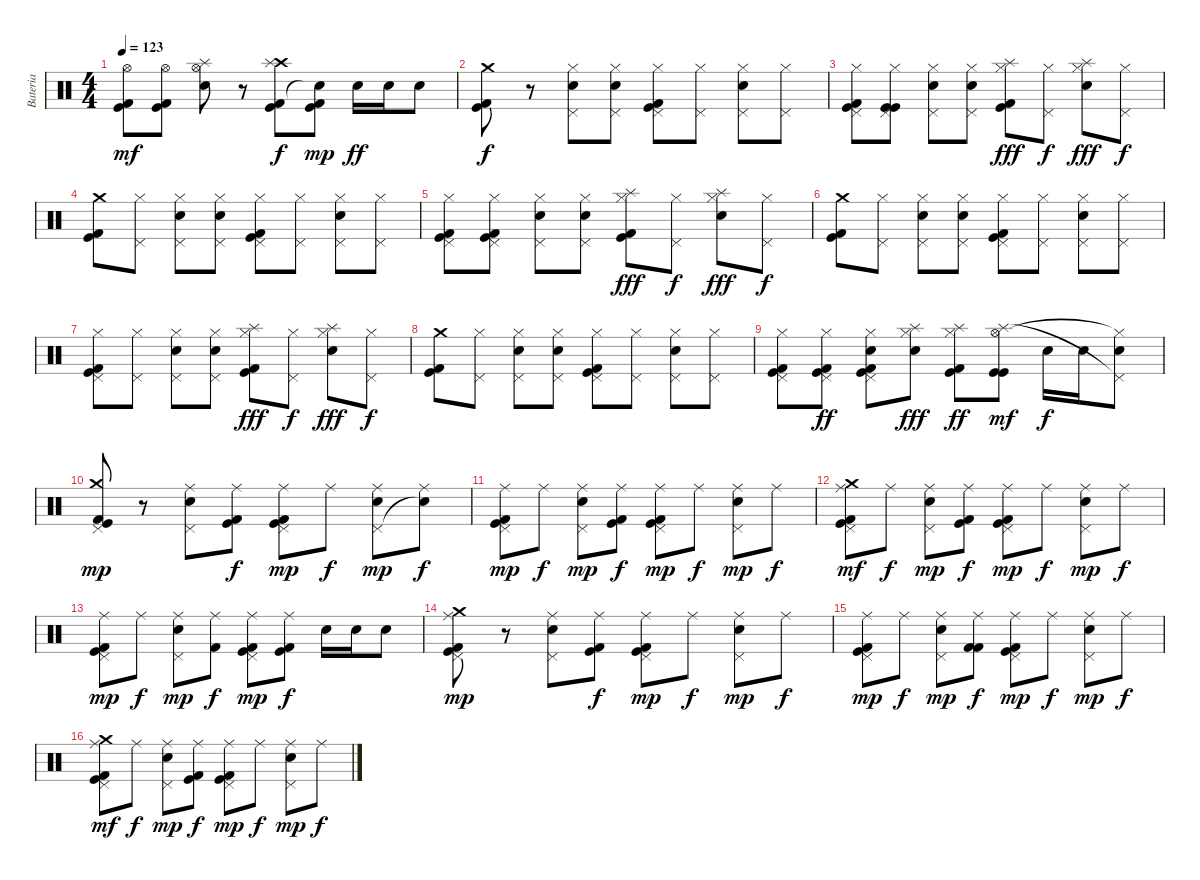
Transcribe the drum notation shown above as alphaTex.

\track ("Bateria" "Bateria") {instrument percussion}
\staff {score}
\articulation defaults
\ts (4 4)
\tempo 123
\clef neutral
\ks c
("Hi-Hat (open)" "Kick (hit) 2" "Kick (hit)").8{dy mf} ("Hi-Hat (open)" "Kick (hit) 2" "Kick (hit)").8 ("Hi-Hat (open)" "Splash (hit)" "Snare (hit) 2").8 r.8 ("Crash high (hit)" "Kick (hit) 2" "Splash (hit)" "Kick (hit)").8{dy f} ("Kick (hit) 2" "Snare (hit)"{t} "Kick (hit)").8{dy mp} "Snare (hit) 2".16{dy ff} "Snare (hit) 2".16 "Snare (hit) 2".8 |
("Kick (hit) 2" "Crash medium (hit)" "Kick (hit)").8{dy f} r.8 ("Snare (hit) 2" "Pedal Hi-Hat (hit)" "Hi-Hat (closed)").8 ("Snare (hit) 2" "Pedal Hi-Hat (hit)" "Hi-Hat (closed)").8 ("Kick (hit) 2" "Pedal Hi-Hat (hit)" "Hi-Hat (closed)" "Kick (hit)").8 ("Pedal Hi-Hat (hit)" "Hi-Hat (closed)").8 ("Snare (hit) 2" "Pedal Hi-Hat (hit)" "Hi-Hat (closed)").8 ("Pedal Hi-Hat (hit)" "Hi-Hat (closed)").8 |
("Kick (hit) 2" "Pedal Hi-Hat (hit)" "Hi-Hat (closed)" "Kick (hit)").8 ("Kick (hit)" "Pedal Hi-Hat (hit)" "Hi-Hat (closed)" "Kick (hit)").8 ("Snare (hit) 2" "Pedal Hi-Hat (hit)" "Hi-Hat (closed)").8 ("Snare (hit) 2" "Pedal Hi-Hat (hit)" "Hi-Hat (closed)").8 ("Kick (hit) 2" "Splash (hit)" "Hi-Hat (closed)" "Kick (hit)").8{dy fff} ("Pedal Hi-Hat (hit)" "Hi-Hat (closed)").8{dy f} ("Snare (hit) 2" "Splash (hit)" "Hi-Hat (closed)").8{dy fff} ("Pedal Hi-Hat (hit)" "Hi-Hat (closed)").8{dy f} |
("Kick (hit) 2" "Crash medium (hit)" "Kick (hit)").8 ("Pedal Hi-Hat (hit)" "Hi-Hat (closed)").8 ("Snare (hit) 2" "Pedal Hi-Hat (hit)" "Hi-Hat (closed)").8 ("Snare (hit) 2" "Pedal Hi-Hat (hit)" "Hi-Hat (closed)").8 ("Kick (hit) 2" "Pedal Hi-Hat (hit)" "Hi-Hat (closed)" "Kick (hit)").8 ("Pedal Hi-Hat (hit)" "Hi-Hat (closed)").8 ("Snare (hit) 2" "Pedal Hi-Hat (hit)" "Hi-Hat (closed)").8 ("Pedal Hi-Hat (hit)" "Hi-Hat (closed)").8 |
("Kick (hit) 2" "Pedal Hi-Hat (hit)" "Hi-Hat (closed)" "Kick (hit)").8 ("Kick (hit) 2" "Pedal Hi-Hat (hit)" "Hi-Hat (closed)" "Kick (hit)").8 ("Snare (hit) 2" "Pedal Hi-Hat (hit)" "Hi-Hat (closed)").8 ("Snare (hit) 2" "Pedal Hi-Hat (hit)" "Hi-Hat (closed)").8 ("Kick (hit) 2" "Splash (hit)" "Hi-Hat (closed)" "Kick (hit)").8{dy fff} ("Pedal Hi-Hat (hit)" "Hi-Hat (closed)").8{dy f} ("Snare (hit) 2" "Splash (hit)" "Hi-Hat (closed)").8{dy fff} ("Pedal Hi-Hat (hit)" "Hi-Hat (closed)").8{dy f} |
("Kick (hit) 2" "Crash medium (hit)" "Kick (hit)").8 ("Pedal Hi-Hat (hit)" "Hi-Hat (closed)").8 ("Snare (hit) 2" "Pedal Hi-Hat (hit)" "Hi-Hat (closed)").8 ("Snare (hit) 2" "Pedal Hi-Hat (hit)" "Hi-Hat (closed)").8 ("Kick (hit) 2" "Pedal Hi-Hat (hit)" "Hi-Hat (closed)" "Kick (hit)").8 ("Pedal Hi-Hat (hit)" "Hi-Hat (closed)").8 ("Snare (hit) 2" "Pedal Hi-Hat (hit)" "Hi-Hat (closed)").8 ("Pedal Hi-Hat (hit)" "Hi-Hat (closed)").8 |
("Kick (hit) 2" "Pedal Hi-Hat (hit)" "Hi-Hat (closed)" "Kick (hit)").8 ("Pedal Hi-Hat (hit)" "Hi-Hat (closed)").8 ("Snare (hit) 2" "Pedal Hi-Hat (hit)" "Hi-Hat (closed)").8 ("Snare (hit) 2" "Pedal Hi-Hat (hit)" "Hi-Hat (closed)").8 ("Kick (hit) 2" "Splash (hit)" "Hi-Hat (closed)" "Kick (hit)").8{dy fff} ("Pedal Hi-Hat (hit)" "Hi-Hat (closed)").8{dy f} ("Snare (hit) 2" "Splash (hit)" "Hi-Hat (closed)").8{dy fff} ("Pedal Hi-Hat (hit)" "Hi-Hat (closed)").8{dy f} |
("Kick (hit) 2" "Crash medium (hit)" "Kick (hit)").8 ("Pedal Hi-Hat (hit)" "Hi-Hat (closed)").8 ("Snare (hit) 2" "Pedal Hi-Hat (hit)" "Hi-Hat (closed)").8 ("Snare (hit) 2" "Pedal Hi-Hat (hit)" "Hi-Hat (closed)").8 ("Kick (hit) 2" "Pedal Hi-Hat (hit)" "Hi-Hat (closed)" "Kick (hit)").8 ("Pedal Hi-Hat (hit)" "Hi-Hat (closed)").8 ("Snare (hit) 2" "Pedal Hi-Hat (hit)" "Hi-Hat (closed)").8 ("Pedal Hi-Hat (hit)" "Hi-Hat (closed)").8 |
("Kick (hit) 2" "Pedal Hi-Hat (hit)" "Hi-Hat (closed)" "Kick (hit)").8 ("Kick (hit) 2" "Pedal Hi-Hat (hit)" "Hi-Hat (closed)" "Kick (hit)").8{dy ff} ("Snare (hit) 2" "Kick (hit) 2" "Pedal Hi-Hat (hit)" "Hi-Hat (closed)" "Kick (hit)").8 ("Snare (hit) 2" "Splash (hit)" "Hi-Hat (closed)").8{dy fff} ("Kick (hit) 2" "Splash (hit)" "Hi-Hat (closed)" "Kick (hit)").8{dy ff} ("Kick (hit)" "Splash (hit)" "Hi-Hat (open)" "Kick (hit)").8{dy mf} "Snare (hit) 2".16{dy f} "Snare (hit) 2".16 ("Snare (hit) 2" "Pedal Hi-Hat (hit)"{t} "Hi-Hat (closed)"{t}).8 |
("Kick (hit) 2" "Pedal Hi-Hat (hit)" "Crash medium (hit)" "Kick (hit)").8{dy mp} r.8 ("Snare (hit) 2" "Pedal Hi-Hat (hit)" "Ride (middle)").8 ("Kick (hit) 2" "Ride (middle)" "Kick (hit)").8{dy f} ("Kick (hit) 2" "Pedal Hi-Hat (hit)" "Ride (middle)" "Kick (hit)").8{dy mp} "Ride (middle)".8{dy f} ("Snare (hit) 2" "Pedal Hi-Hat (hit)" "Ride (middle)").8{dy mp} ("Ride (middle)" "Snare (hit)"{t}).8{dy f} |
("Kick (hit) 2" "Pedal Hi-Hat (hit)" "Ride (middle)" "Kick (hit)").8{dy mp} "Ride (middle)".8{dy f} ("Snare (hit) 2" "Pedal Hi-Hat (hit)" "Ride (middle)").8{dy mp} ("Kick (hit) 2" "Ride (middle)" "Kick (hit)").8{dy f} ("Kick (hit) 2" "Pedal Hi-Hat (hit)" "Ride (middle)" "Kick (hit)").8{dy mp} "Ride (middle)".8{dy f} ("Snare (hit) 2" "Pedal Hi-Hat (hit)" "Ride (middle)").8{dy mp} "Ride (middle)".8{dy f} |
("Kick (hit) 2" "Pedal Hi-Hat (hit)" "Crash medium (hit)" "Ride (middle)" "Kick (hit)").8{dy mf} "Ride (middle)".8{dy f} ("Snare (hit) 2" "Pedal Hi-Hat (hit)" "Ride (middle)").8{dy mp} ("Kick (hit) 2" "Ride (middle)" "Kick (hit)").8{dy f} ("Kick (hit) 2" "Pedal Hi-Hat (hit)" "Ride (middle)" "Kick (hit)").8{dy mp} "Ride (middle)".8{dy f} ("Snare (hit) 2" "Pedal Hi-Hat (hit)" "Ride (middle)").8{dy mp} "Ride (middle)".8{dy f} |
("Kick (hit) 2" "Pedal Hi-Hat (hit)" "Ride (middle)" "Kick (hit)").8{dy mp} "Ride (middle)".8{dy f} ("Snare (hit) 2" "Pedal Hi-Hat (hit)" "Ride (middle)").8{dy mp} ("Kick (hit) 2" "Ride (middle)").8{dy f} ("Pedal Hi-Hat (hit)" "Kick (hit)" "Ride (middle)" "Kick (hit) 2").8{dy mp} ("Kick (hit) 2" "Ride (middle)" "Kick (hit)").8{dy f} "Snare (hit) 2".16 "Snare (hit) 2".16 "Snare (hit) 2".8 |
("Kick (hit) 2" "Pedal Hi-Hat (hit)" "Crash medium (hit)" "Ride (middle)" "Kick (hit)").8{dy mp} r.8 ("Snare (hit) 2" "Pedal Hi-Hat (hit)" "Ride (middle)").8 ("Kick (hit) 2" "Ride (middle)" "Kick (hit)").8{dy f} ("Kick (hit) 2" "Pedal Hi-Hat (hit)" "Ride (middle)" "Kick (hit)").8{dy mp} "Ride (middle)".8{dy f} ("Snare (hit) 2" "Pedal Hi-Hat (hit)" "Ride (middle)").8{dy mp} "Ride (middle)".8{dy f} |
("Kick (hit) 2" "Pedal Hi-Hat (hit)" "Ride (middle)" "Kick (hit)").8{dy mp} "Ride (middle)".8{dy f} ("Snare (hit) 2" "Pedal Hi-Hat (hit)" "Ride (middle)").8{dy mp} ("Kick (hit) 2" "Ride (middle)" "Kick (hit) 2").8{dy f} ("Kick (hit) 2" "Pedal Hi-Hat (hit)" "Ride (middle)" "Kick (hit)").8{dy mp} "Ride (middle)".8{dy f} ("Snare (hit) 2" "Pedal Hi-Hat (hit)" "Ride (middle)").8{dy mp} "Ride (middle)".8{dy f} |
("Kick (hit) 2" "Pedal Hi-Hat (hit)" "Crash medium (hit)" "Ride (middle)" "Kick (hit)").8{dy mf} "Ride (middle)".8{dy f} ("Snare (hit) 2" "Pedal Hi-Hat (hit)" "Ride (middle)").8{dy mp} ("Kick (hit) 2" "Ride (middle)" "Kick (hit)").8{dy f} ("Kick (hit) 2" "Pedal Hi-Hat (hit)" "Ride (middle)" "Kick (hit)").8{dy mp} "Ride (middle)".8{dy f} ("Snare (hit) 2" "Pedal Hi-Hat (hit)" "Ride (middle)").8{dy mp} "Ride (middle)".8{dy f}
